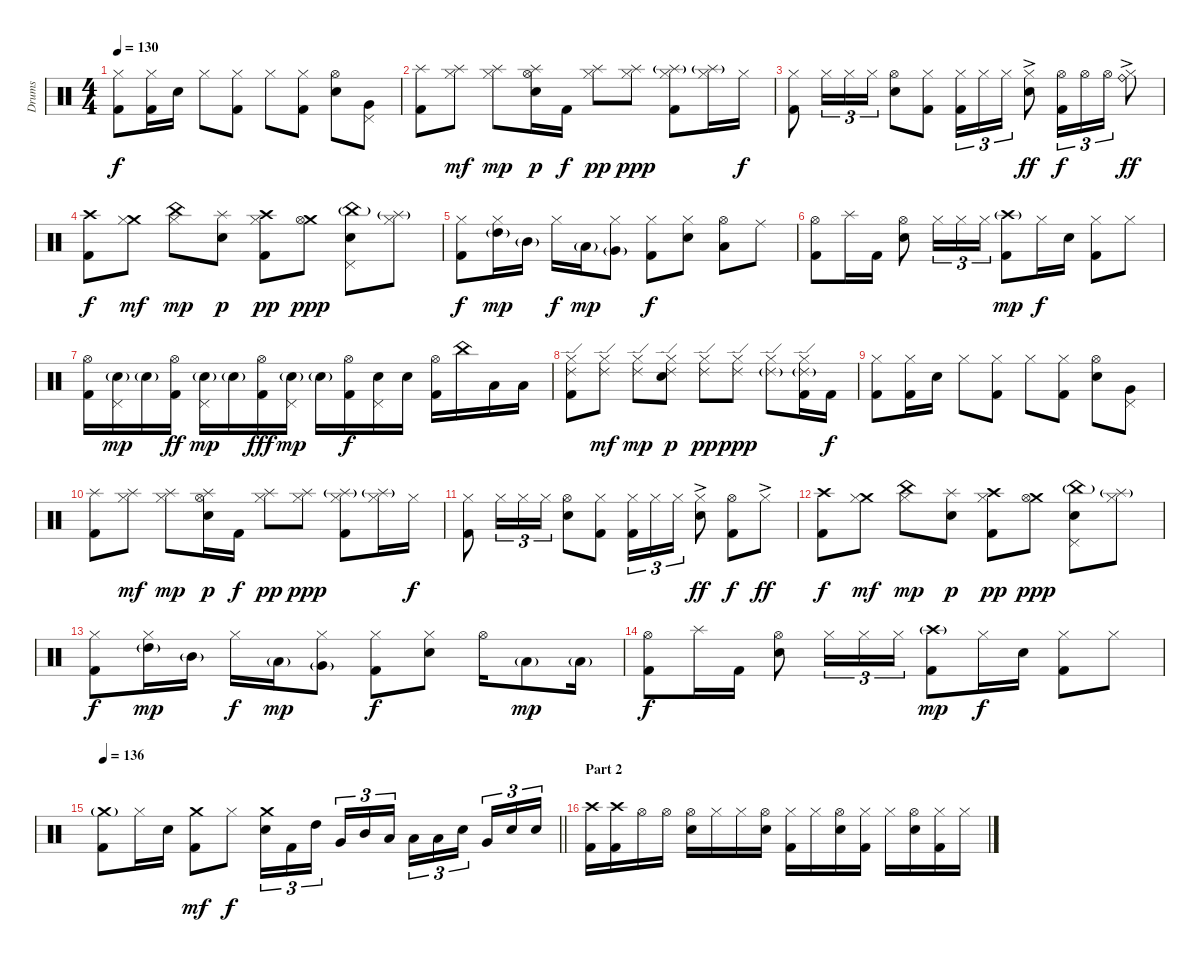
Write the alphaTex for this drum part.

\track ("Drums" "Drums") {instrument percussion}
\staff {score}
\articulation defaults
\ts (4 4)
\tempo 130
\clef neutral
\ks c
("Hi-Hat (closed)" "Kick (hit) 2").8{dy f} ("Hi-Hat (closed)" "Kick (hit) 2").16 "Electric Snare (hit)".16 "Hi-Hat (closed)".8 ("Hi-Hat (closed)" "Kick (hit) 2").8 "Hi-Hat (closed)".8 ("Hi-Hat (closed)" "Kick (hit) 2").8 ("Hi-Hat (open)" "Electric Snare (hit)").8 ("Pedal Hi-Hat (hit)" "Very Low Tom (hit)").8 |
("Splash (hit)" "Kick (hit) 2").8 ("Splash (hit)" "Hi-Hat (closed)").8{dy mf} ("Splash (hit)" "Hi-Hat (closed)").8{dy mp} ("Splash (hit)" "Hi-Hat (open)" "Electric Snare (hit)").16{dy p} "Kick (hit) 2".16{dy f} ("Splash (hit)" "Hi-Hat (closed)").8{dy pp} ("Splash (hit)" "Hi-Hat (closed)").8{dy ppp} ("Splash (hit)"{g} "Hi-Hat (closed)" "Kick (hit) 2").8 ("Splash (hit)"{g} "Hi-Hat (closed)").16 "Hi-Hat (closed)".16{dy f} |
("Hi-Hat (closed)" "Kick (hit) 2").8 "Hi-Hat (closed)".16{tu (3 2)} "Hi-Hat (closed)".16{tu (3 2)} "Hi-Hat (closed)".16{tu (3 2)} ("Hi-Hat (open)" "Electric Snare (hit)").8 ("Hi-Hat (closed)" "Kick (hit) 2").8 ("Hi-Hat (closed)" "Kick (hit) 2").16{tu (3 2)} "Hi-Hat (closed)".16{tu (3 2)} "Hi-Hat (closed)".16{tu (3 2)} ("Hi-Hat (closed)"{ac} "Electric Snare (hit)").8{dy ff} ("Hi-Hat (open)" "Kick (hit) 2").16{tu (3 2) dy f} "Hi-Hat (open)".16{tu (3 2)} "Hi-Hat (open)".16{tu (3 2)} ("Hi-Hat (closed)"{ac} "Ride (bell)").8{dy ff} |
("Crash high (hit)" "Kick (hit) 2").8{dy f} ("Crash medium (hit)" "Hi-Hat (closed)").8{dy mf} ("China (hit)" "Hi-Hat (closed)").8{dy mp} ("Splash (hit)" "Electric Snare (hit)").8{dy p} ("Crash high (hit)" "Hi-Hat (closed)" "Kick (hit) 2").8{dy pp} ("Crash medium (hit)" "Hi-Hat (open)").8{dy ppp} ("China (hit)"{g} "Pedal Hi-Hat (hit)" "Electric Snare (hit)").8 ("Splash (hit)"{g} "Hi-Hat (closed)").8 |
("Hi-Hat (closed)" "Kick (hit) 2").8{dy f} ("Hi-Hat (closed)" "High Tom (hit)"{g}).16{dy mp} "Mid Tom (hit)"{g}.16 "Hi-Hat (closed)".16{dy f} "Low Tom (hit)"{g}.16{dy mp} ("Hi-Hat (closed)" "Very Low Tom (hit)"{g}).8 ("Hi-Hat (closed)" "Kick (hit) 2").8{dy f} ("Hi-Hat (closed)" "Electric Snare (hit)").8 ("Hi-Hat (open)" "Low Floor Tom (hit)").8 "Ride (middle)".8 |
("Hi-Hat (open)" "Kick (hit) 2").8 "Splash (hit)".16 "Kick (hit) 2".16 ("Hi-Hat (open)" "Electric Snare (hit)").8 "Hi-Hat (closed)".16{tu (3 2)} "Hi-Hat (closed)".16{tu (3 2)} "Hi-Hat (closed)".16{tu (3 2)} ("Crash high (hit)"{g} "Kick (hit) 2").8{dy mp} "Hi-Hat (closed)".16{dy f} "Electric Snare (hit)".16 ("Hi-Hat (closed)" "Kick (hit) 2").8 "Hi-Hat (closed)".8 |
("Hi-Hat (open)" "Kick (hit) 2").16 ("Pedal Hi-Hat (hit)" "Electric Snare (hit)"{g}).16{dy mp} "Electric Snare (hit)"{g}.16 ("Hi-Hat (open)" "Kick (hit) 2").16{dy ff} ("Pedal Hi-Hat (hit)" "Electric Snare (hit)"{g}).16{dy mp} "Electric Snare (hit)"{g}.16 ("Hi-Hat (open)" "Kick (hit) 2").16{dy fff} ("Pedal Hi-Hat (hit)" "Electric Snare (hit)"{g}).16{dy mp} "Electric Snare (hit)"{g}.16 ("Hi-Hat (open)" "Kick (hit) 2").16{dy f} ("Pedal Hi-Hat (hit)" "Electric Snare (hit)").16 "Electric Snare (hit)".16 ("Hi-Hat (open)" "Kick (hit) 2").16 "China (hit)".16 "Low Tom (hit)".16 "Low Floor Tom (hit)".16 |
("Ride (edge) 2" "Hi-Hat (closed)" "Kick (hit) 2").8 ("Ride (edge) 2" "Hi-Hat (closed)").8{dy mf} ("Ride (edge) 2" "Hi-Hat (closed)").8{dy mp} ("Ride (edge) 2" "Hi-Hat (closed)" "Electric Snare (hit)").8{dy p} ("Ride (edge) 2" "Hi-Hat (closed)").8{dy pp} ("Ride (edge) 2" "Hi-Hat (closed)").8{dy ppp} ("Ride (edge) 2"{g} "Hi-Hat (closed)").8 ("Ride (edge) 2"{g} "Hi-Hat (closed)" "Kick (hit) 2").16 "Kick (hit) 2".16{dy f} |
("Hi-Hat (closed)" "Kick (hit) 2").8 ("Hi-Hat (closed)" "Kick (hit) 2").16 "Electric Snare (hit)".16 "Hi-Hat (closed)".8 ("Hi-Hat (closed)" "Kick (hit) 2").8 "Hi-Hat (closed)".8 ("Hi-Hat (closed)" "Kick (hit) 2").8 ("Hi-Hat (open)" "Electric Snare (hit)").8 ("Pedal Hi-Hat (hit)" "Very Low Tom (hit)").8 |
("Splash (hit)" "Kick (hit) 2").8 ("Splash (hit)" "Hi-Hat (closed)").8{dy mf} ("Splash (hit)" "Hi-Hat (closed)").8{dy mp} ("Splash (hit)" "Hi-Hat (open)" "Electric Snare (hit)").16{dy p} "Kick (hit) 2".16{dy f} ("Splash (hit)" "Hi-Hat (closed)").8{dy pp} ("Splash (hit)" "Hi-Hat (closed)").8{dy ppp} ("Splash (hit)"{g} "Hi-Hat (closed)" "Kick (hit) 2").8 ("Splash (hit)"{g} "Hi-Hat (closed)").16 "Hi-Hat (closed)".16{dy f} |
("Hi-Hat (closed)" "Kick (hit) 2").8 "Hi-Hat (closed)".16{tu (3 2)} "Hi-Hat (closed)".16{tu (3 2)} "Hi-Hat (closed)".16{tu (3 2)} ("Hi-Hat (open)" "Electric Snare (hit)").8 ("Hi-Hat (closed)" "Kick (hit) 2").8 ("Hi-Hat (closed)" "Kick (hit) 2").16{tu (3 2)} "Hi-Hat (closed)".16{tu (3 2)} "Hi-Hat (closed)".16{tu (3 2)} ("Hi-Hat (closed)"{ac} "Electric Snare (hit)").8{dy ff} ("Hi-Hat (open)" "Kick (hit) 2").8{dy f} "Hi-Hat (closed)"{ac}.8{dy ff} |
("Crash high (hit)" "Kick (hit) 2").8{dy f} ("Crash medium (hit)" "Hi-Hat (closed)").8{dy mf} ("China (hit)" "Hi-Hat (closed)").8{dy mp} ("Splash (hit)" "Electric Snare (hit)").8{dy p} ("Crash high (hit)" "Hi-Hat (closed)" "Kick (hit) 2").8{dy pp} ("Crash medium (hit)" "Hi-Hat (open)").8{dy ppp} ("China (hit)"{g} "Pedal Hi-Hat (hit)" "Electric Snare (hit)").8 ("Splash (hit)"{g} "Hi-Hat (closed)").8 |
("Hi-Hat (closed)" "Kick (hit) 2").8{dy f} ("Hi-Hat (closed)" "High Tom (hit)"{g}).16{dy mp} "Mid Tom (hit)"{g}.16 "Hi-Hat (closed)".16{dy f} "Low Tom (hit)"{g}.16{dy mp} ("Hi-Hat (closed)" "Very Low Tom (hit)"{g}).8 ("Hi-Hat (closed)" "Kick (hit) 2").8{dy f} ("Hi-Hat (closed)" "Electric Snare (hit)").8 "Hi-Hat (open)".16 "Low Floor Tom (hit)"{g}.8{dy mp} "Low Floor Tom (hit)"{g}.16 |
("Hi-Hat (open)" "Kick (hit) 2").8{dy f} "Splash (hit)".16 "Kick (hit) 2".16 ("Hi-Hat (open)" "Electric Snare (hit)").8 "Hi-Hat (closed)".16{tu (3 2)} "Hi-Hat (closed)".16{tu (3 2)} "Hi-Hat (closed)".16{tu (3 2)} ("Crash high (hit)"{g} "Kick (hit) 2").8{dy mp} "Hi-Hat (closed)".16{dy f} "Electric Snare (hit)".16 ("Hi-Hat (closed)" "Kick (hit) 2").8 "Hi-Hat (closed)".8 |
\tempo 136
\barLineRight lightlight
("Crash medium (hit)"{g} "Kick (hit) 2").8 "Hi-Hat (closed)".16 "Electric Snare (hit)".16 ("Crash medium (hit)" "Kick (hit) 2").8{dy mf} "Hi-Hat (closed)".8{dy f} ("Crash medium (hit)" "Electric Snare (hit)").16{tu (3 2)} "Kick (hit) 2".16{tu (3 2)} "High Tom (hit)".16{tu (3 2) beam splitsecondary} "Very Low Tom (hit)".16{tu (3 2)} "Mid Tom (hit)".16{tu (3 2)} "Low Floor Tom (hit)".16{tu (3 2)} "Low Tom (hit)".16{tu (3 2)} "Low Floor Tom (hit)".16{tu (3 2)} "Electric Snare (hit)".16{tu (3 2) beam splitsecondary} "Very Low Tom (hit)".16{tu (3 2)} "Electric Snare (hit)".16{tu (3 2)} "Electric Snare (hit)".16{tu (3 2)} |
\section ("" "Part 2")
("Crash high (hit)" "Kick (hit) 2").16 ("Crash high (hit)" "Kick (hit) 2").16 "Hi-Hat (open)".16 "Hi-Hat (open)".16 ("Hi-Hat (open)" "Electric Snare (hit)").16 "Hi-Hat (closed)".16 "Hi-Hat (closed)".16 ("Hi-Hat (open)" "Electric Snare (hit)").16 ("Hi-Hat (closed)" "Kick (hit) 2").16 "Hi-Hat (closed)".16 ("Hi-Hat (open)" "Electric Snare (hit)").16 ("Hi-Hat (closed)" "Kick (hit) 2").16 "Hi-Hat (closed)".16 ("Hi-Hat (open)" "Electric Snare (hit)").16 ("Hi-Hat (closed)" "Kick (hit) 2").16 "Hi-Hat (closed)".16
